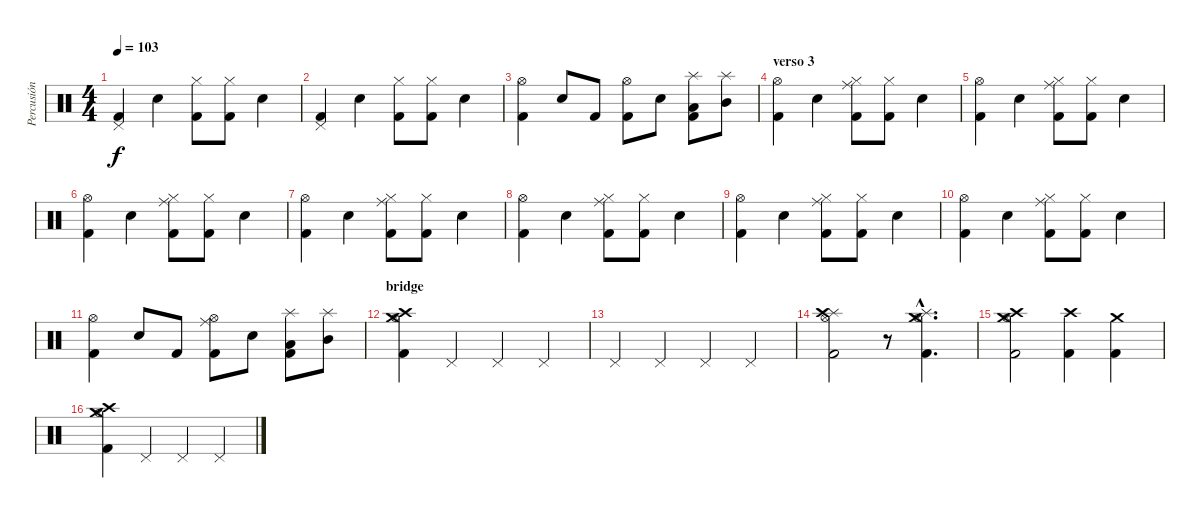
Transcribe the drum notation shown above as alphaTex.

\track ("Percusión" "Percusión") {instrument percussion}
\staff {score}
\articulation defaults
\ts (4 4)
\tempo 103
\clef neutral
\ks c
("Pedal Hi-Hat (hit)" "Kick (hit) 2").4{dy f} "Electric Snare (hit)".4 ("Hi-Hat (closed)" "Kick (hit) 2").8 ("Hi-Hat (closed)" "Kick (hit) 2").8 "Electric Snare (hit)".4 |
("Pedal Hi-Hat (hit)" "Kick (hit) 2").4 "Electric Snare (hit)".4 ("Hi-Hat (closed)" "Kick (hit) 2").8 ("Hi-Hat (closed)" "Kick (hit) 2").8 "Electric Snare (hit)".4 |
("Hi-Hat (open)" "Kick (hit) 2").4 "Electric Snare (hit)".8 "Kick (hit) 2".8 ("Hi-Hat (open)" "Kick (hit) 2").8 "Electric Snare (hit)".8 ("Splash (hit)" "Low Tom (hit)" "Kick (hit) 2").8 ("Splash (hit)" "Mid Tom (hit)").8 |
\section ("" "verso 3")
("Hi-Hat (open)" "Kick (hit) 2").4 "Electric Snare (hit)".4 ("Ride (middle)" "Hi-Hat (closed)" "Kick (hit) 2").8 ("Hi-Hat (closed)" "Kick (hit) 2").8 "Electric Snare (hit)".4 |
("Hi-Hat (open)" "Kick (hit) 2").4 "Electric Snare (hit)".4 ("Ride (middle)" "Hi-Hat (closed)" "Kick (hit) 2").8 ("Hi-Hat (closed)" "Kick (hit) 2").8 "Electric Snare (hit)".4 |
("Hi-Hat (open)" "Kick (hit) 2").4 "Electric Snare (hit)".4 ("Ride (middle)" "Hi-Hat (closed)" "Kick (hit) 2").8 ("Hi-Hat (closed)" "Kick (hit) 2").8 "Electric Snare (hit)".4 |
("Hi-Hat (open)" "Kick (hit) 2").4 "Electric Snare (hit)".4 ("Ride (middle)" "Hi-Hat (closed)" "Kick (hit) 2").8 ("Hi-Hat (closed)" "Kick (hit) 2").8 "Electric Snare (hit)".4 |
("Hi-Hat (open)" "Kick (hit) 2").4 "Electric Snare (hit)".4 ("Ride (middle)" "Hi-Hat (closed)" "Kick (hit) 2").8 ("Hi-Hat (closed)" "Kick (hit) 2").8 "Electric Snare (hit)".4 |
("Hi-Hat (open)" "Kick (hit) 2").4 "Electric Snare (hit)".4 ("Ride (middle)" "Hi-Hat (closed)" "Kick (hit) 2").8 ("Hi-Hat (closed)" "Kick (hit) 2").8 "Electric Snare (hit)".4 |
("Hi-Hat (open)" "Kick (hit) 2").4 "Electric Snare (hit)".4 ("Ride (middle)" "Hi-Hat (closed)" "Kick (hit) 2").8 ("Hi-Hat (closed)" "Kick (hit) 2").8 "Electric Snare (hit)".4 |
("Hi-Hat (open)" "Kick (hit) 2").4 "Electric Snare (hit)".8 "Kick (hit) 2".8 ("Ride (middle)" "Hi-Hat (open)" "Kick (hit) 2").8 "Electric Snare (hit)".8 ("Splash (hit)" "Low Tom (hit)" "Kick (hit) 2").8 ("Splash (hit)" "Mid Tom (hit)").8 |
\section ("" "bridge ")
("Crash medium (hit)" "Crash high (hit)" "Hi-Hat (open)" "Kick (hit) 2").4 "Pedal Hi-Hat (hit)".4 "Pedal Hi-Hat (hit)".4 "Pedal Hi-Hat (hit)".4 |
"Pedal Hi-Hat (hit)".4 "Pedal Hi-Hat (hit)".4 "Pedal Hi-Hat (hit)".4 "Pedal Hi-Hat (hit)".4 |
("Splash (hit)" "Crash high (hit)" "Hi-Hat (open)" "Kick (hit) 2").2 r.8 ("Splash (hit)"{hac} "Crash medium (hit)"{hac} "Hi-Hat (open)"{hac} "Kick (hit) 2"{hac}).4{d} |
("Crash medium (hit)" "Crash high (hit)" "Hi-Hat (open)" "Kick (hit) 2").2 ("Crash high (hit)" "Kick (hit) 2").4 ("Crash medium (hit)" "Kick (hit) 2").4 |
("Crash medium (hit)" "Crash high (hit)" "Hi-Hat (open)" "Kick (hit) 2").4 "Pedal Hi-Hat (hit)".4 "Pedal Hi-Hat (hit)".4 "Pedal Hi-Hat (hit)".4
